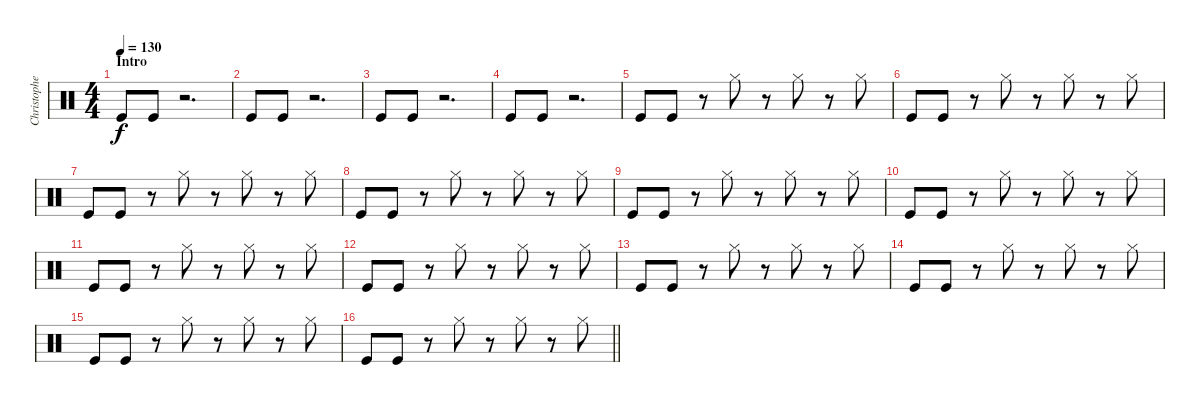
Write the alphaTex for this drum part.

\track ("Christopher - Drums" "Christophe") {instrument percussion}
\staff {score}
\articulation defaults
\ts (4 4)
\section ("" "Intro")
\tempo 130
\clef neutral
\ks c "Kick (hit)".8{dy f} "Kick (hit)".8
r.2{d} |
"Kick (hit)".8 "Kick (hit)".8 r.2{d} |
"Kick (hit)".8 "Kick (hit)".8 r.2{d} |
"Kick (hit)".8 "Kick (hit)".8 r.2{d} |
"Kick (hit)".8 "Kick (hit)".8 r.8 "Hi-Hat (closed)".8 r.8 "Hi-Hat (closed)".8 r.8 "Hi-Hat (closed)".8 |
"Kick (hit)".8 "Kick (hit)".8 r.8 "Hi-Hat (closed)".8 r.8 "Hi-Hat (closed)".8 r.8 "Hi-Hat (closed)".8 |
"Kick (hit)".8 "Kick (hit)".8 r.8 "Hi-Hat (closed)".8 r.8 "Hi-Hat (closed)".8 r.8 "Hi-Hat (closed)".8 |
"Kick (hit)".8 "Kick (hit)".8 r.8 "Hi-Hat (closed)".8 r.8 "Hi-Hat (closed)".8 r.8 "Hi-Hat (closed)".8 |
"Kick (hit)".8 "Kick (hit)".8 r.8 "Hi-Hat (closed)".8 r.8 "Hi-Hat (closed)".8 r.8 "Hi-Hat (closed)".8 |
"Kick (hit)".8 "Kick (hit)".8 r.8 "Hi-Hat (closed)".8 r.8 "Hi-Hat (closed)".8 r.8 "Hi-Hat (closed)".8 |
"Kick (hit)".8 "Kick (hit)".8 r.8 "Hi-Hat (closed)".8 r.8 "Hi-Hat (closed)".8 r.8 "Hi-Hat (closed)".8 |
"Kick (hit)".8 "Kick (hit)".8 r.8 "Hi-Hat (closed)".8 r.8 "Hi-Hat (closed)".8 r.8 "Hi-Hat (closed)".8 |
"Kick (hit)".8 "Kick (hit)".8 r.8 "Hi-Hat (closed)".8 r.8 "Hi-Hat (closed)".8 r.8 "Hi-Hat (closed)".8 |
"Kick (hit)".8 "Kick (hit)".8 r.8 "Hi-Hat (closed)".8 r.8 "Hi-Hat (closed)".8 r.8 "Hi-Hat (closed)".8 |
"Kick (hit)".8 "Kick (hit)".8 r.8 "Hi-Hat (closed)".8 r.8 "Hi-Hat (closed)".8 r.8 "Hi-Hat (closed)".8 |
\barLineRight lightlight "Kick (hit)".8 "Kick (hit)".8
r.8 "Hi-Hat (closed)".8 r.8 "Hi-Hat (closed)".8 r.8 "Hi-Hat (closed)".8
